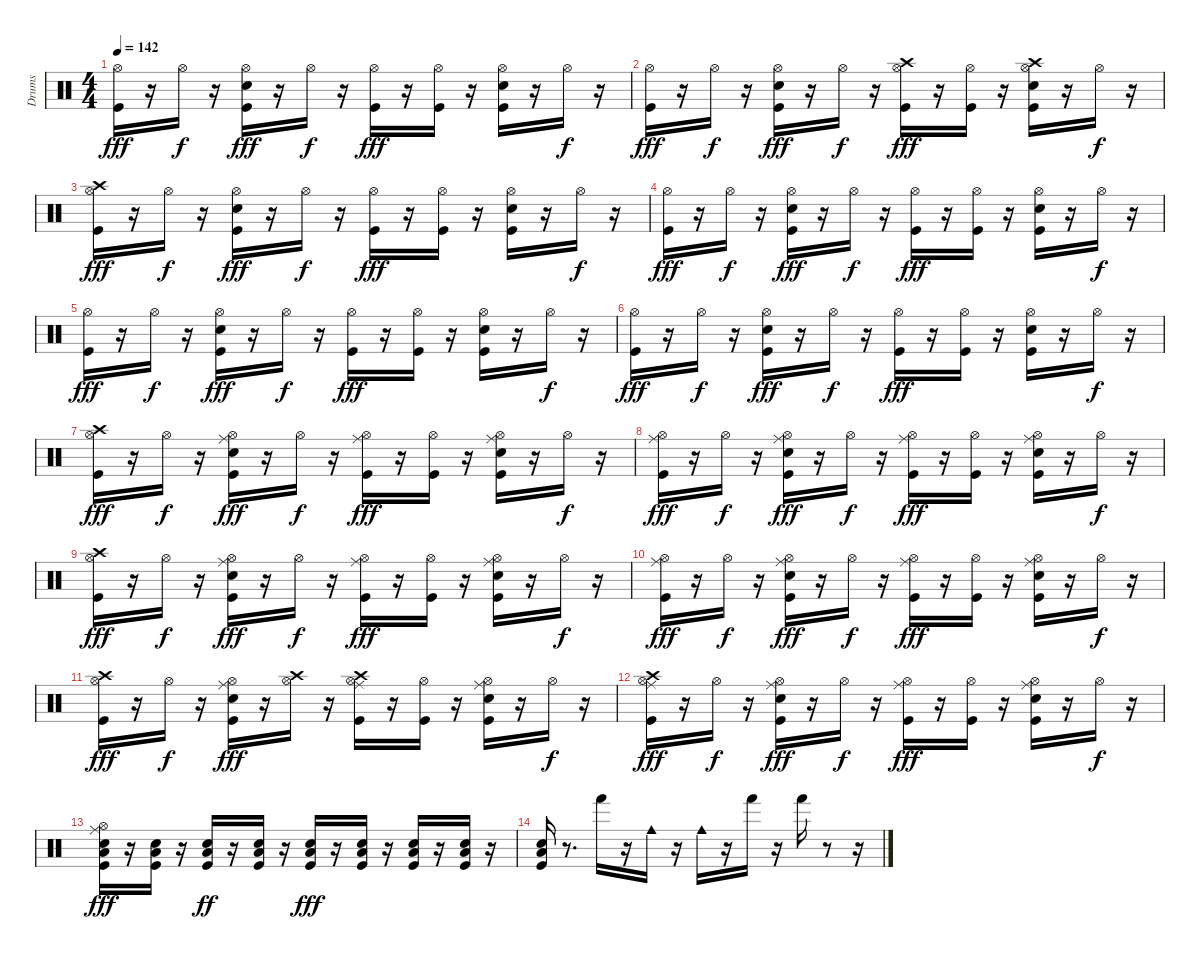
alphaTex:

\track ("Drums" "Drums") {instrument percussion}
\staff {score}
\articulation defaults
\ts (4 4)
\tempo 142
\clef neutral
\ks c
("Hi-Hat (open)" "Kick (hit)").16{dy fff} r.16 "Hi-Hat (open)".16{dy f} r.16 ("Snare (hit) 2" "Kick (hit)" "Hi-Hat (open)").16{dy fff} r.16 "Hi-Hat (open)".16{dy f} r.16 ("Kick (hit)" "Hi-Hat (open)").16{dy fff} r.16 ("Kick (hit)" "Hi-Hat (open)").16 r.16 ("Kick (hit)" "Snare (hit) 2" "Hi-Hat (open)").16 r.16 "Hi-Hat (open)".16{dy f} r.16 |
("Hi-Hat (open)" "Kick (hit)").16{dy fff} r.16 "Hi-Hat (open)".16{dy f} r.16 ("Snare (hit) 2" "Kick (hit)" "Hi-Hat (open)").16{dy fff} r.16 "Hi-Hat (open)".16{dy f} r.16 ("Kick (hit)" "Hi-Hat (open)" "Crash high (hit)").16{dy fff} r.16 ("Kick (hit)" "Hi-Hat (open)").16 r.16 ("Kick (hit)" "Snare (hit) 2" "Hi-Hat (open)" "Crash high (hit)").16 r.16 "Hi-Hat (open)".16{dy f} r.16 |
("Hi-Hat (open)" "Kick (hit)" "Crash high (hit)").16{dy fff} r.16 "Hi-Hat (open)".16{dy f} r.16 ("Snare (hit) 2" "Kick (hit)" "Hi-Hat (open)").16{dy fff} r.16 "Hi-Hat (open)".16{dy f} r.16 ("Kick (hit)" "Hi-Hat (open)").16{dy fff} r.16 ("Kick (hit)" "Hi-Hat (open)").16 r.16 ("Kick (hit)" "Snare (hit) 2" "Hi-Hat (open)").16 r.16 "Hi-Hat (open)".16{dy f} r.16 |
("Hi-Hat (open)" "Kick (hit)").16{dy fff} r.16 "Hi-Hat (open)".16{dy f} r.16 ("Snare (hit) 2" "Kick (hit)" "Hi-Hat (open)").16{dy fff} r.16 "Hi-Hat (open)".16{dy f} r.16 ("Kick (hit)" "Hi-Hat (open)").16{dy fff} r.16 ("Kick (hit)" "Hi-Hat (open)").16 r.16 ("Kick (hit)" "Snare (hit) 2" "Hi-Hat (open)").16 r.16 "Hi-Hat (open)".16{dy f} r.16 |
("Hi-Hat (open)" "Kick (hit)").16{dy fff} r.16 "Hi-Hat (open)".16{dy f} r.16 ("Snare (hit) 2" "Kick (hit)" "Hi-Hat (open)").16{dy fff} r.16 "Hi-Hat (open)".16{dy f} r.16 ("Kick (hit)" "Hi-Hat (open)").16{dy fff} r.16 ("Kick (hit)" "Hi-Hat (open)").16 r.16 ("Kick (hit)" "Snare (hit) 2" "Hi-Hat (open)").16 r.16 "Hi-Hat (open)".16{dy f} r.16 |
("Hi-Hat (open)" "Kick (hit)").16{dy fff} r.16 "Hi-Hat (open)".16{dy f} r.16 ("Snare (hit) 2" "Kick (hit)" "Hi-Hat (open)").16{dy fff} r.16 "Hi-Hat (open)".16{dy f} r.16 ("Kick (hit)" "Hi-Hat (open)").16{dy fff} r.16 ("Kick (hit)" "Hi-Hat (open)").16 r.16 ("Kick (hit)" "Snare (hit) 2" "Hi-Hat (open)").16 r.16 "Hi-Hat (open)".16{dy f} r.16 |
("Hi-Hat (open)" "Kick (hit)" "Crash high (hit)").16{dy fff} r.16 "Hi-Hat (open)".16{dy f} r.16 ("Snare (hit) 2" "Kick (hit)" "Hi-Hat (open)" "Ride (middle)").16{dy fff} r.16 "Hi-Hat (open)".16{dy f} r.16 ("Kick (hit)" "Hi-Hat (open)" "Ride (middle)").16{dy fff} r.16 ("Kick (hit)" "Hi-Hat (open)").16 r.16 ("Kick (hit)" "Snare (hit) 2" "Hi-Hat (open)" "Ride (middle)").16 r.16 "Hi-Hat (open)".16{dy f} r.16 |
("Hi-Hat (open)" "Kick (hit)" "Ride (middle)").16{dy fff} r.16 "Hi-Hat (open)".16{dy f} r.16 ("Snare (hit) 2" "Kick (hit)" "Hi-Hat (open)" "Ride (middle)").16{dy fff} r.16 "Hi-Hat (open)".16{dy f} r.16 ("Kick (hit)" "Hi-Hat (open)" "Ride (middle)").16{dy fff} r.16 ("Kick (hit)" "Hi-Hat (open)").16 r.16 ("Kick (hit)" "Snare (hit) 2" "Hi-Hat (open)" "Ride (middle)").16 r.16 "Hi-Hat (open)".16{dy f} r.16 |
("Crash high (hit)" "Kick (hit)" "Hi-Hat (open)").16{dy fff} r.16 "Hi-Hat (open)".16{dy f} r.16 ("Snare (hit) 2" "Kick (hit)" "Hi-Hat (open)" "Ride (middle)").16{dy fff} r.16 "Hi-Hat (open)".16{dy f} r.16 ("Kick (hit)" "Hi-Hat (open)" "Ride (middle)").16{dy fff} r.16 ("Kick (hit)" "Hi-Hat (open)").16 r.16 ("Kick (hit)" "Snare (hit) 2" "Hi-Hat (open)" "Ride (middle)").16 r.16 "Hi-Hat (open)".16{dy f} r.16 |
("Hi-Hat (open)" "Kick (hit)" "Ride (middle)").16{dy fff} r.16 "Hi-Hat (open)".16{dy f} r.16 ("Snare (hit) 2" "Kick (hit)" "Hi-Hat (open)" "Ride (middle)").16{dy fff} r.16 "Hi-Hat (open)".16{dy f} r.16 ("Kick (hit)" "Hi-Hat (open)" "Ride (middle)").16{dy fff} r.16 ("Kick (hit)" "Hi-Hat (open)").16 r.16 ("Kick (hit)" "Snare (hit) 2" "Hi-Hat (open)" "Ride (middle)").16 r.16 "Hi-Hat (open)".16{dy f} r.16 |
("Crash high (hit)" "Kick (hit)" "Hi-Hat (open)").16{dy fff} r.16 "Hi-Hat (open)".16{dy f} r.16 ("Snare (hit) 2" "Kick (hit)" "Hi-Hat (open)" "Ride (middle)").16{dy fff} r.16 ("Hi-Hat (open)" "Crash high (hit)").16 r.16 ("Kick (hit)" "Hi-Hat (open)" "Ride (middle)" "Crash high (hit)").16 r.16 ("Kick (hit)" "Hi-Hat (open)").16 r.16 ("Kick (hit)" "Snare (hit) 2" "Hi-Hat (open)" "Ride (middle)").16 r.16 "Hi-Hat (open)".16{dy f} r.16 |
("Hi-Hat (open)" "Kick (hit)" "Ride (middle)" "Crash high (hit)").16{dy fff} r.16 "Hi-Hat (open)".16{dy f} r.16 ("Snare (hit) 2" "Kick (hit)" "Hi-Hat (open)" "Ride (middle)").16{dy fff} r.16 "Hi-Hat (open)".16{dy f} r.16 ("Kick (hit)" "Hi-Hat (open)" "Ride (middle)").16{dy fff} r.16 ("Kick (hit)" "Hi-Hat (open)").16 r.16 ("Kick (hit)" "Snare (hit) 2" "Hi-Hat (open)" "Ride (middle)").16 r.16 "Hi-Hat (open)".16{dy f} r.16 |
("Ride (middle)" "Snare (hit) 2" "Kick (hit)" "Hi-Hat (open)" "Low Floor Tom (hit)").16{dy fff} r.16 ("Kick (hit)" "Snare (hit) 2" "Low Floor Tom (hit)").16 r.16 ("Kick (hit)" "Snare (hit) 2" "Low Floor Tom (hit)").16{dy ff} r.16 ("Kick (hit)" "Snare (hit) 2" "Low Floor Tom (hit)").16 r.16 ("Kick (hit)" "Snare (hit) 2" "Low Floor Tom (hit)").16{dy fff} r.16 ("Kick (hit)" "Snare (hit) 2" "Low Floor Tom (hit)").16 r.16 ("Kick (hit)" "Snare (hit) 2" "Low Floor Tom (hit)").16 r.16 ("Kick (hit)" "Snare (hit) 2" "Low Floor Tom (hit)").16 r.16 |
("Kick (hit)" "Snare (hit) 2" "Low Floor Tom (hit)").16 r.8{d} "Hand (hit)".16 r.16 "Cowbell medium (hit)".16 r.16 "Cowbell medium (hit)".16 r.16 "Hand (hit)".16 r.16 "Hand (hit)".16 r.8 r.16
